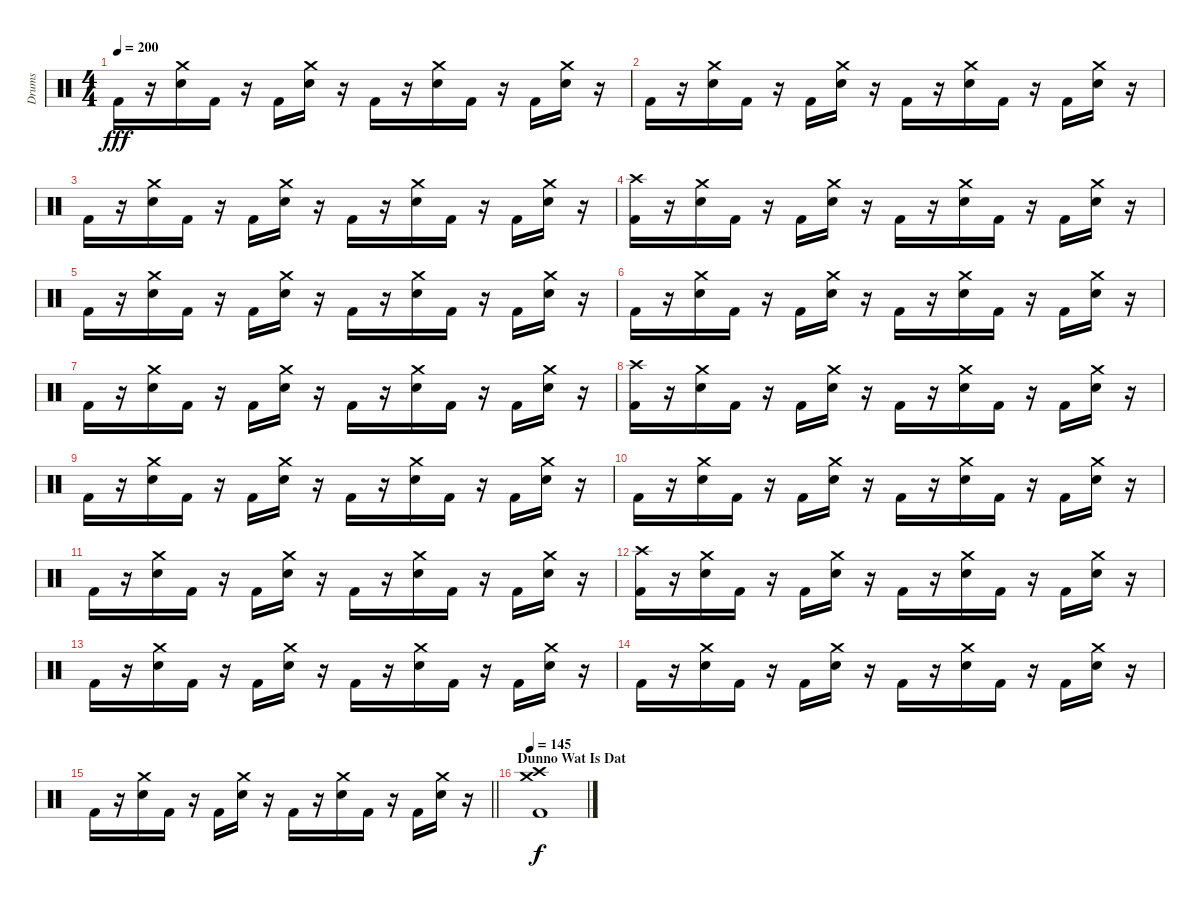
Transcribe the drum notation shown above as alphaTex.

\track ("Drums" "Drums") {instrument percussion}
\staff {score}
\articulation defaults
\ts (4 4)
\tempo 200
\clef neutral
\ks c "Kick (hit) 2".16{dy fff}
r.16 ("Crash medium (hit)" "Electric Snare (hit)").16 "Kick (hit) 2".16 r.16 "Kick (hit) 2".16 ("Crash medium (hit)" "Electric Snare (hit)").16 r.16 "Kick (hit) 2".16 r.16 ("Crash medium (hit)" "Electric Snare (hit)").16 "Kick (hit) 2".16 r.16 "Kick (hit) 2".16 ("Crash medium (hit)" "Electric Snare (hit)").16 r.16 |
"Kick (hit) 2".16 r.16 ("Crash medium (hit)" "Electric Snare (hit)").16 "Kick (hit) 2".16 r.16 "Kick (hit) 2".16 ("Crash medium (hit)" "Electric Snare (hit)").16 r.16 "Kick (hit) 2".16 r.16 ("Crash medium (hit)" "Electric Snare (hit)").16 "Kick (hit) 2".16 r.16 "Kick (hit) 2".16 ("Crash medium (hit)" "Electric Snare (hit)").16 r.16 |
"Kick (hit) 2".16 r.16 ("Crash medium (hit)" "Electric Snare (hit)").16 "Kick (hit) 2".16 r.16 "Kick (hit) 2".16 ("Crash medium (hit)" "Electric Snare (hit)").16 r.16 "Kick (hit) 2".16 r.16 ("Crash medium (hit)" "Electric Snare (hit)").16 "Kick (hit) 2".16 r.16 "Kick (hit) 2".16 ("Crash medium (hit)" "Electric Snare (hit)").16 r.16 |
("Crash high (hit)" "Kick (hit) 2").16 r.16 ("Crash medium (hit)" "Electric Snare (hit)").16 "Kick (hit) 2".16 r.16 "Kick (hit) 2".16 ("Crash medium (hit)" "Electric Snare (hit)").16 r.16 "Kick (hit) 2".16 r.16 ("Crash medium (hit)" "Electric Snare (hit)").16 "Kick (hit) 2".16 r.16 "Kick (hit) 2".16 ("Crash medium (hit)" "Electric Snare (hit)").16 r.16 |
"Kick (hit) 2".16 r.16 ("Crash medium (hit)" "Electric Snare (hit)").16 "Kick (hit) 2".16 r.16 "Kick (hit) 2".16 ("Crash medium (hit)" "Electric Snare (hit)").16 r.16 "Kick (hit) 2".16 r.16 ("Crash medium (hit)" "Electric Snare (hit)").16 "Kick (hit) 2".16 r.16 "Kick (hit) 2".16 ("Crash medium (hit)" "Electric Snare (hit)").16 r.16 |
"Kick (hit) 2".16 r.16 ("Crash medium (hit)" "Electric Snare (hit)").16 "Kick (hit) 2".16 r.16 "Kick (hit) 2".16 ("Crash medium (hit)" "Electric Snare (hit)").16 r.16 "Kick (hit) 2".16 r.16 ("Crash medium (hit)" "Electric Snare (hit)").16 "Kick (hit) 2".16 r.16 "Kick (hit) 2".16 ("Crash medium (hit)" "Electric Snare (hit)").16 r.16 |
"Kick (hit) 2".16 r.16 ("Crash medium (hit)" "Electric Snare (hit)").16 "Kick (hit) 2".16 r.16 "Kick (hit) 2".16 ("Crash medium (hit)" "Electric Snare (hit)").16 r.16 "Kick (hit) 2".16 r.16 ("Crash medium (hit)" "Electric Snare (hit)").16 "Kick (hit) 2".16 r.16 "Kick (hit) 2".16 ("Crash medium (hit)" "Electric Snare (hit)").16 r.16 |
("Crash high (hit)" "Kick (hit) 2").16 r.16 ("Crash medium (hit)" "Electric Snare (hit)").16 "Kick (hit) 2".16 r.16 "Kick (hit) 2".16 ("Crash medium (hit)" "Electric Snare (hit)").16 r.16 "Kick (hit) 2".16 r.16 ("Crash medium (hit)" "Electric Snare (hit)").16 "Kick (hit) 2".16 r.16 "Kick (hit) 2".16 ("Crash medium (hit)" "Electric Snare (hit)").16 r.16 |
"Kick (hit) 2".16 r.16 ("Crash medium (hit)" "Electric Snare (hit)").16 "Kick (hit) 2".16 r.16 "Kick (hit) 2".16 ("Crash medium (hit)" "Electric Snare (hit)").16 r.16 "Kick (hit) 2".16 r.16 ("Crash medium (hit)" "Electric Snare (hit)").16 "Kick (hit) 2".16 r.16 "Kick (hit) 2".16 ("Crash medium (hit)" "Electric Snare (hit)").16 r.16 |
"Kick (hit) 2".16 r.16 ("Crash medium (hit)" "Electric Snare (hit)").16 "Kick (hit) 2".16 r.16 "Kick (hit) 2".16 ("Crash medium (hit)" "Electric Snare (hit)").16 r.16 "Kick (hit) 2".16 r.16 ("Crash medium (hit)" "Electric Snare (hit)").16 "Kick (hit) 2".16 r.16 "Kick (hit) 2".16 ("Crash medium (hit)" "Electric Snare (hit)").16 r.16 |
"Kick (hit) 2".16 r.16 ("Crash medium (hit)" "Electric Snare (hit)").16 "Kick (hit) 2".16 r.16 "Kick (hit) 2".16 ("Crash medium (hit)" "Electric Snare (hit)").16 r.16 "Kick (hit) 2".16 r.16 ("Crash medium (hit)" "Electric Snare (hit)").16 "Kick (hit) 2".16 r.16 "Kick (hit) 2".16 ("Crash medium (hit)" "Electric Snare (hit)").16 r.16 |
("Crash high (hit)" "Kick (hit) 2").16 r.16 ("Crash medium (hit)" "Electric Snare (hit)").16 "Kick (hit) 2".16 r.16 "Kick (hit) 2".16 ("Crash medium (hit)" "Electric Snare (hit)").16 r.16 "Kick (hit) 2".16 r.16 ("Crash medium (hit)" "Electric Snare (hit)").16 "Kick (hit) 2".16 r.16 "Kick (hit) 2".16 ("Crash medium (hit)" "Electric Snare (hit)").16 r.16 |
"Kick (hit) 2".16 r.16 ("Crash medium (hit)" "Electric Snare (hit)").16 "Kick (hit) 2".16 r.16 "Kick (hit) 2".16 ("Crash medium (hit)" "Electric Snare (hit)").16 r.16 "Kick (hit) 2".16 r.16 ("Crash medium (hit)" "Electric Snare (hit)").16 "Kick (hit) 2".16 r.16 "Kick (hit) 2".16 ("Crash medium (hit)" "Electric Snare (hit)").16 r.16 |
"Kick (hit) 2".16 r.16 ("Crash medium (hit)" "Electric Snare (hit)").16 "Kick (hit) 2".16 r.16 "Kick (hit) 2".16 ("Crash medium (hit)" "Electric Snare (hit)").16 r.16 "Kick (hit) 2".16 r.16 ("Crash medium (hit)" "Electric Snare (hit)").16 "Kick (hit) 2".16 r.16 "Kick (hit) 2".16 ("Crash medium (hit)" "Electric Snare (hit)").16 r.16 |
\barLineRight lightlight "Kick (hit) 2".16
r.16 ("Crash medium (hit)" "Electric Snare (hit)").16 "Kick (hit) 2".16 r.16 "Kick (hit) 2".16 ("Crash medium (hit)" "Electric Snare (hit)").16 r.16 "Kick (hit) 2".16 r.16 ("Crash medium (hit)" "Electric Snare (hit)").16 "Kick (hit) 2".16 r.16 "Kick (hit) 2".16 ("Crash medium (hit)" "Electric Snare (hit)").16 r.16 |
\section ("" "Dunno Wat Is Dat")
\tempo 145
("Crash high (hit)" "Crash medium (hit)" "Kick (hit) 2").1{dy f}
